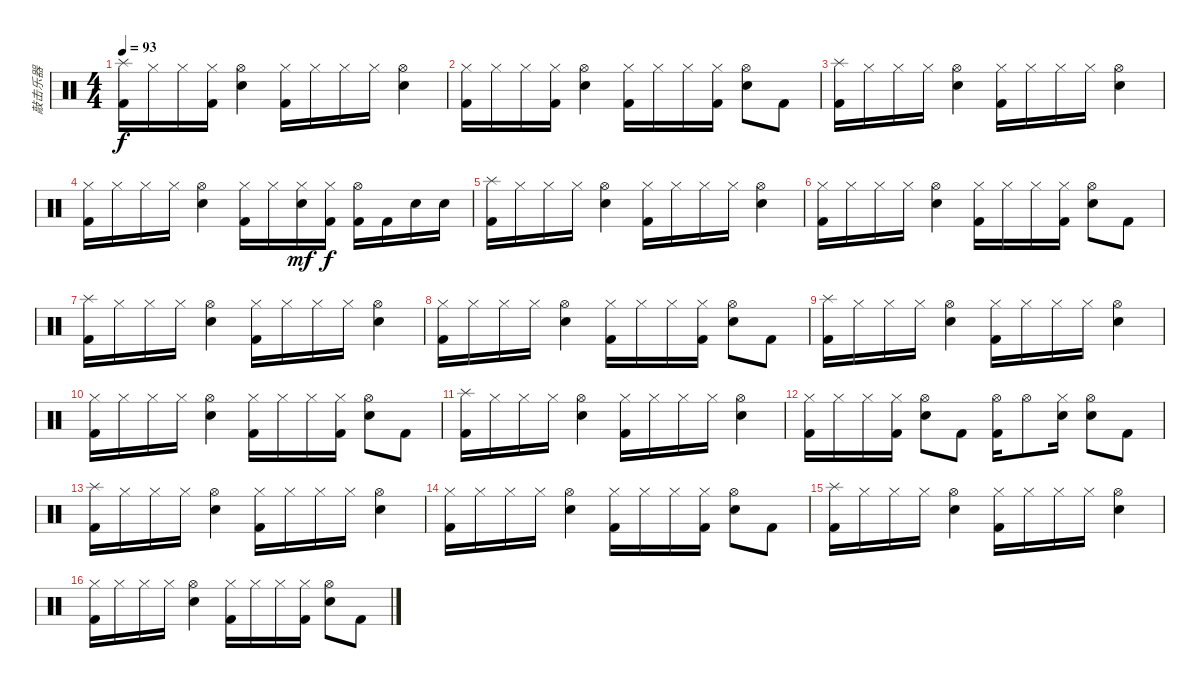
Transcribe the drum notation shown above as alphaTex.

\track ("敲击乐器" "敲击乐器") {instrument percussion}
\staff {score}
\articulation defaults
\ts (4 4)
\tempo 93
\clef neutral
\ks c
("Splash (hit)" "Kick (hit) 2").16{dy f} "Hi-Hat (closed)".16 "Hi-Hat (closed)".16 ("Hi-Hat (closed)" "Kick (hit) 2").16 ("Hi-Hat (open)" "Metronome (bell)").4 ("Hi-Hat (closed)" "Kick (hit) 2").16 "Hi-Hat (closed)".16 "Hi-Hat (closed)".16 "Hi-Hat (closed)".16 ("Hi-Hat (open)" "Metronome (bell)").4 |
("Hi-Hat (closed)" "Kick (hit) 2").16 "Hi-Hat (closed)".16 "Hi-Hat (closed)".16 ("Hi-Hat (closed)" "Kick (hit) 2").16 ("Hi-Hat (open)" "Metronome (bell)").4 ("Hi-Hat (closed)" "Kick (hit) 2").16 "Hi-Hat (closed)".16 "Hi-Hat (closed)".16 ("Hi-Hat (closed)" "Kick (hit) 2").16 ("Hi-Hat (open)" "Metronome (bell)").8 "Kick (hit) 2".8 |
("Splash (hit)" "Kick (hit) 2").16 "Hi-Hat (closed)".16 "Hi-Hat (closed)".16 "Hi-Hat (closed)".16 ("Hi-Hat (open)" "Metronome (bell)").4 ("Hi-Hat (closed)" "Kick (hit) 2").16 "Hi-Hat (closed)".16 "Hi-Hat (closed)".16 "Hi-Hat (closed)".16 ("Hi-Hat (open)" "Metronome (bell)").4 |
("Hi-Hat (closed)" "Kick (hit) 2").16 "Hi-Hat (closed)".16 "Hi-Hat (closed)".16 "Hi-Hat (closed)".16 ("Hi-Hat (open)" "Metronome (bell)").4 ("Hi-Hat (closed)" "Kick (hit) 2").16 "Hi-Hat (closed)".16 ("Hi-Hat (closed)" "Metronome (bell)").16{dy mf} ("Hi-Hat (closed)" "Kick (hit) 2").16{dy f} ("Hi-Hat (open)" "Kick (hit) 2").16 "Kick (hit) 2".16 "Metronome (bell)".16 "Metronome (bell)".16 |
("Splash (hit)" "Kick (hit) 2").16 "Hi-Hat (closed)".16 "Hi-Hat (closed)".16 "Hi-Hat (closed)".16 ("Hi-Hat (open)" "Metronome (bell)").4 ("Hi-Hat (closed)" "Kick (hit) 2").16 "Hi-Hat (closed)".16 "Hi-Hat (closed)".16 "Hi-Hat (closed)".16 ("Hi-Hat (open)" "Metronome (bell)").4 |
("Hi-Hat (closed)" "Kick (hit) 2").16 "Hi-Hat (closed)".16 "Hi-Hat (closed)".16 "Hi-Hat (closed)".16 ("Hi-Hat (open)" "Metronome (bell)").4 ("Hi-Hat (closed)" "Kick (hit) 2").16 "Hi-Hat (closed)".16 "Hi-Hat (closed)".16 ("Hi-Hat (closed)" "Kick (hit) 2").16 ("Hi-Hat (open)" "Metronome (bell)").8 "Kick (hit) 2".8 |
("Splash (hit)" "Kick (hit) 2").16 "Hi-Hat (closed)".16 "Hi-Hat (closed)".16 "Hi-Hat (closed)".16 ("Hi-Hat (open)" "Metronome (bell)").4 ("Hi-Hat (closed)" "Kick (hit) 2").16 "Hi-Hat (closed)".16 "Hi-Hat (closed)".16 "Hi-Hat (closed)".16 ("Hi-Hat (open)" "Metronome (bell)").4 |
("Hi-Hat (closed)" "Kick (hit) 2").16 "Hi-Hat (closed)".16 "Hi-Hat (closed)".16 "Hi-Hat (closed)".16 ("Hi-Hat (open)" "Metronome (bell)").4 ("Hi-Hat (closed)" "Kick (hit) 2").16 "Hi-Hat (closed)".16 "Hi-Hat (closed)".16 ("Hi-Hat (closed)" "Kick (hit) 2").16 ("Hi-Hat (open)" "Metronome (bell)").8 "Kick (hit) 2".8 |
("Splash (hit)" "Kick (hit) 2").16 "Hi-Hat (closed)".16 "Hi-Hat (closed)".16 "Hi-Hat (closed)".16 ("Hi-Hat (open)" "Metronome (bell)").4 ("Hi-Hat (closed)" "Kick (hit) 2").16 "Hi-Hat (closed)".16 "Hi-Hat (closed)".16 "Hi-Hat (closed)".16 ("Hi-Hat (open)" "Metronome (bell)").4 |
("Hi-Hat (closed)" "Kick (hit) 2").16 "Hi-Hat (closed)".16 "Hi-Hat (closed)".16 "Hi-Hat (closed)".16 ("Hi-Hat (open)" "Metronome (bell)").4 ("Hi-Hat (closed)" "Kick (hit) 2").16 "Hi-Hat (closed)".16 "Hi-Hat (closed)".16 ("Hi-Hat (closed)" "Kick (hit) 2").16 ("Hi-Hat (open)" "Metronome (bell)").8 "Kick (hit) 2".8 |
("Splash (hit)" "Kick (hit) 2").16 "Hi-Hat (closed)".16 "Hi-Hat (closed)".16 "Hi-Hat (closed)".16 ("Hi-Hat (open)" "Metronome (bell)").4 ("Hi-Hat (closed)" "Kick (hit) 2").16 "Hi-Hat (closed)".16 "Hi-Hat (closed)".16 "Hi-Hat (closed)".16 ("Hi-Hat (open)" "Metronome (bell)").4 |
("Hi-Hat (closed)" "Kick (hit) 2").16 "Hi-Hat (closed)".16 "Hi-Hat (closed)".16 ("Hi-Hat (closed)" "Kick (hit) 2").16 ("Hi-Hat (open)" "Metronome (bell)").8 "Kick (hit) 2".8 ("Hi-Hat (open)" "Kick (hit) 2").16 "Hi-Hat (open)".8 ("Hi-Hat (closed)" "Metronome (bell)").16 ("Hi-Hat (open)" "Metronome (bell)").8 "Kick (hit) 2".8 |
("Splash (hit)" "Kick (hit) 2").16 "Hi-Hat (closed)".16 "Hi-Hat (closed)".16 "Hi-Hat (closed)".16 ("Hi-Hat (open)" "Metronome (bell)").4 ("Hi-Hat (closed)" "Kick (hit) 2").16 "Hi-Hat (closed)".16 "Hi-Hat (closed)".16 "Hi-Hat (closed)".16 ("Hi-Hat (open)" "Metronome (bell)").4 |
("Hi-Hat (closed)" "Kick (hit) 2").16 "Hi-Hat (closed)".16 "Hi-Hat (closed)".16 "Hi-Hat (closed)".16 ("Hi-Hat (open)" "Metronome (bell)").4 ("Hi-Hat (closed)" "Kick (hit) 2").16 "Hi-Hat (closed)".16 "Hi-Hat (closed)".16 ("Hi-Hat (closed)" "Kick (hit) 2").16 ("Hi-Hat (open)" "Metronome (bell)").8 "Kick (hit) 2".8 |
("Splash (hit)" "Kick (hit) 2").16 "Hi-Hat (closed)".16 "Hi-Hat (closed)".16 "Hi-Hat (closed)".16 ("Hi-Hat (open)" "Metronome (bell)").4 ("Hi-Hat (closed)" "Kick (hit) 2").16 "Hi-Hat (closed)".16 "Hi-Hat (closed)".16 "Hi-Hat (closed)".16 ("Hi-Hat (open)" "Metronome (bell)").4 |
("Hi-Hat (closed)" "Kick (hit) 2").16 "Hi-Hat (closed)".16 "Hi-Hat (closed)".16 "Hi-Hat (closed)".16 ("Hi-Hat (open)" "Metronome (bell)").4 ("Hi-Hat (closed)" "Kick (hit) 2").16 "Hi-Hat (closed)".16 "Hi-Hat (closed)".16 ("Hi-Hat (closed)" "Kick (hit) 2").16 ("Hi-Hat (open)" "Metronome (bell)").8 "Kick (hit) 2".8
